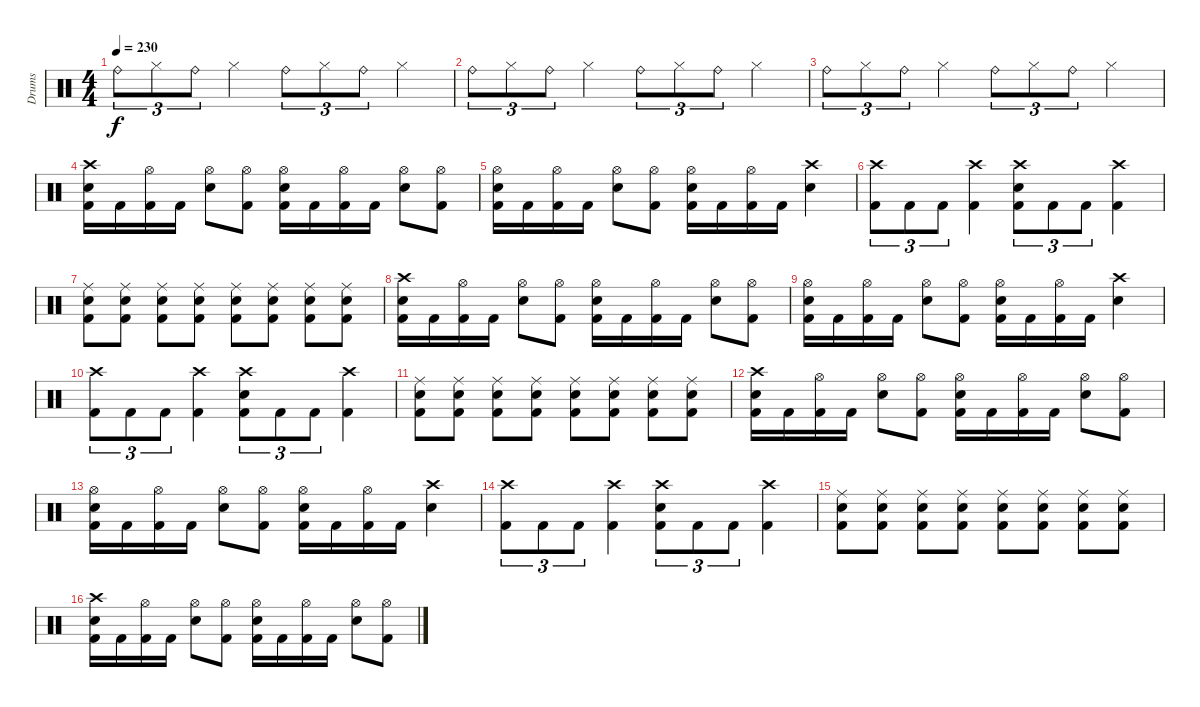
\track ("Drums" "Drums") {instrument percussion}
\staff {score}
\articulation defaults
\ts (4 4)
\tempo 230
\clef neutral
\ks c "Ride (bell)".8{tu (3 2) dy f} "Hi-Hat (closed)".8{tu (3 2)} "Ride (bell)".8{tu (3 2)} "Hi-Hat (closed)".4 "Ride (bell)".8{tu (3 2)} "Hi-Hat (closed)".8{tu (3 2)} "Ride (bell)".8{tu (3 2)} "Hi-Hat (closed)".4
|
"Ride (bell)".8{tu (3 2)} "Hi-Hat (closed)".8{tu (3 2)} "Ride (bell)".8{tu (3 2)} "Hi-Hat (closed)".4 "Ride (bell)".8{tu (3 2)} "Hi-Hat (closed)".8{tu (3 2)} "Ride (bell)".8{tu (3 2)} "Hi-Hat (closed)".4 |
"Ride (bell)".8{tu (3 2)} "Hi-Hat (closed)".8{tu (3 2)} "Ride (bell)".8{tu (3 2)} "Hi-Hat (closed)".4 "Ride (bell)".8{tu (3 2)} "Hi-Hat (closed)".8{tu (3 2)} "Ride (bell)".8{tu (3 2)} "Hi-Hat (closed)".4 |
("Crash high (hit)" "Electric Snare (hit)" "Kick (hit) 2").16 "Kick (hit) 2".16 ("Hi-Hat (open)" "Kick (hit) 2").16 "Kick (hit) 2".16 ("Hi-Hat (open)" "Electric Snare (hit)").8 ("Hi-Hat (open)" "Kick (hit) 2").8 ("Hi-Hat (open)" "Electric Snare (hit)" "Kick (hit) 2").16 "Kick (hit) 2".16 ("Hi-Hat (open)" "Kick (hit) 2").16 "Kick (hit) 2".16 ("Hi-Hat (open)" "Electric Snare (hit)").8 ("Hi-Hat (open)" "Kick (hit) 2").8 |
("Hi-Hat (open)" "Electric Snare (hit)" "Kick (hit) 2").16 "Kick (hit) 2".16 ("Hi-Hat (open)" "Kick (hit) 2").16 "Kick (hit) 2".16 ("Hi-Hat (open)" "Electric Snare (hit)").8 ("Hi-Hat (open)" "Kick (hit) 2").8 ("Hi-Hat (open)" "Electric Snare (hit)" "Kick (hit) 2").16 "Kick (hit) 2".16 ("Hi-Hat (open)" "Kick (hit) 2").16 "Kick (hit) 2".16 ("Crash high (hit)" "Electric Snare (hit)").4 |
("Crash high (hit)" "Kick (hit) 2").8{tu (3 2)} "Kick (hit) 2".8{tu (3 2)} "Kick (hit) 2".8{tu (3 2)} ("Crash high (hit)" "Kick (hit) 2").4 ("Crash high (hit)" "Electric Snare (hit)" "Kick (hit) 2").8{tu (3 2)} "Kick (hit) 2".8{tu (3 2)} "Kick (hit) 2".8{tu (3 2)} ("Crash high (hit)" "Kick (hit) 2").4 |
("Ride (middle)" "Electric Snare (hit)" "Kick (hit) 2").8 ("Ride (middle)" "Electric Snare (hit)" "Kick (hit) 2").8 ("Ride (middle)" "Electric Snare (hit)" "Kick (hit) 2").8 ("Ride (middle)" "Electric Snare (hit)" "Kick (hit) 2").8 ("Ride (middle)" "Electric Snare (hit)" "Kick (hit) 2").8 ("Ride (middle)" "Electric Snare (hit)" "Kick (hit) 2").8 ("Ride (middle)" "Electric Snare (hit)" "Kick (hit) 2").8 ("Ride (middle)" "Electric Snare (hit)" "Kick (hit) 2").8 |
("Crash high (hit)" "Electric Snare (hit)" "Kick (hit) 2").16 "Kick (hit) 2".16 ("Hi-Hat (open)" "Kick (hit) 2").16 "Kick (hit) 2".16 ("Hi-Hat (open)" "Electric Snare (hit)").8 ("Hi-Hat (open)" "Kick (hit) 2").8 ("Hi-Hat (open)" "Electric Snare (hit)" "Kick (hit) 2").16 "Kick (hit) 2".16 ("Hi-Hat (open)" "Kick (hit) 2").16 "Kick (hit) 2".16 ("Hi-Hat (open)" "Electric Snare (hit)").8 ("Hi-Hat (open)" "Kick (hit) 2").8 |
("Hi-Hat (open)" "Electric Snare (hit)" "Kick (hit) 2").16 "Kick (hit) 2".16 ("Hi-Hat (open)" "Kick (hit) 2").16 "Kick (hit) 2".16 ("Hi-Hat (open)" "Electric Snare (hit)").8 ("Hi-Hat (open)" "Kick (hit) 2").8 ("Hi-Hat (open)" "Electric Snare (hit)" "Kick (hit) 2").16 "Kick (hit) 2".16 ("Hi-Hat (open)" "Kick (hit) 2").16 "Kick (hit) 2".16 ("Crash high (hit)" "Electric Snare (hit)").4 |
("Crash high (hit)" "Kick (hit) 2").8{tu (3 2)} "Kick (hit) 2".8{tu (3 2)} "Kick (hit) 2".8{tu (3 2)} ("Crash high (hit)" "Kick (hit) 2").4 ("Crash high (hit)" "Electric Snare (hit)" "Kick (hit) 2").8{tu (3 2)} "Kick (hit) 2".8{tu (3 2)} "Kick (hit) 2".8{tu (3 2)} ("Crash high (hit)" "Kick (hit) 2").4 |
("Ride (middle)" "Electric Snare (hit)" "Kick (hit) 2").8 ("Ride (middle)" "Electric Snare (hit)" "Kick (hit) 2").8 ("Ride (middle)" "Electric Snare (hit)" "Kick (hit) 2").8 ("Ride (middle)" "Electric Snare (hit)" "Kick (hit) 2").8 ("Ride (middle)" "Electric Snare (hit)" "Kick (hit) 2").8 ("Ride (middle)" "Electric Snare (hit)" "Kick (hit) 2").8 ("Ride (middle)" "Electric Snare (hit)" "Kick (hit) 2").8 ("Ride (middle)" "Electric Snare (hit)" "Kick (hit) 2").8 |
("Crash high (hit)" "Electric Snare (hit)" "Kick (hit) 2").16 "Kick (hit) 2".16 ("Hi-Hat (open)" "Kick (hit) 2").16 "Kick (hit) 2".16 ("Hi-Hat (open)" "Electric Snare (hit)").8 ("Hi-Hat (open)" "Kick (hit) 2").8 ("Hi-Hat (open)" "Electric Snare (hit)" "Kick (hit) 2").16 "Kick (hit) 2".16 ("Hi-Hat (open)" "Kick (hit) 2").16 "Kick (hit) 2".16 ("Hi-Hat (open)" "Electric Snare (hit)").8 ("Hi-Hat (open)" "Kick (hit) 2").8 |
("Hi-Hat (open)" "Electric Snare (hit)" "Kick (hit) 2").16 "Kick (hit) 2".16 ("Hi-Hat (open)" "Kick (hit) 2").16 "Kick (hit) 2".16 ("Hi-Hat (open)" "Electric Snare (hit)").8 ("Hi-Hat (open)" "Kick (hit) 2").8 ("Hi-Hat (open)" "Electric Snare (hit)" "Kick (hit) 2").16 "Kick (hit) 2".16 ("Hi-Hat (open)" "Kick (hit) 2").16 "Kick (hit) 2".16 ("Crash high (hit)" "Electric Snare (hit)").4 |
("Crash high (hit)" "Kick (hit) 2").8{tu (3 2)} "Kick (hit) 2".8{tu (3 2)} "Kick (hit) 2".8{tu (3 2)} ("Crash high (hit)" "Kick (hit) 2").4 ("Crash high (hit)" "Electric Snare (hit)" "Kick (hit) 2").8{tu (3 2)} "Kick (hit) 2".8{tu (3 2)} "Kick (hit) 2".8{tu (3 2)} ("Crash high (hit)" "Kick (hit) 2").4 |
("Ride (middle)" "Electric Snare (hit)" "Kick (hit) 2").8 ("Ride (middle)" "Electric Snare (hit)" "Kick (hit) 2").8 ("Ride (middle)" "Electric Snare (hit)" "Kick (hit) 2").8 ("Ride (middle)" "Electric Snare (hit)" "Kick (hit) 2").8 ("Ride (middle)" "Electric Snare (hit)" "Kick (hit) 2").8 ("Ride (middle)" "Electric Snare (hit)" "Kick (hit) 2").8 ("Ride (middle)" "Electric Snare (hit)" "Kick (hit) 2").8 ("Ride (middle)" "Electric Snare (hit)" "Kick (hit) 2").8 |
("Crash high (hit)" "Electric Snare (hit)" "Kick (hit) 2").16 "Kick (hit) 2".16 ("Hi-Hat (open)" "Kick (hit) 2").16 "Kick (hit) 2".16 ("Hi-Hat (open)" "Electric Snare (hit)").8 ("Hi-Hat (open)" "Kick (hit) 2").8 ("Hi-Hat (open)" "Electric Snare (hit)" "Kick (hit) 2").16 "Kick (hit) 2".16 ("Hi-Hat (open)" "Kick (hit) 2").16 "Kick (hit) 2".16 ("Hi-Hat (open)" "Electric Snare (hit)").8 ("Hi-Hat (open)" "Kick (hit) 2").8
